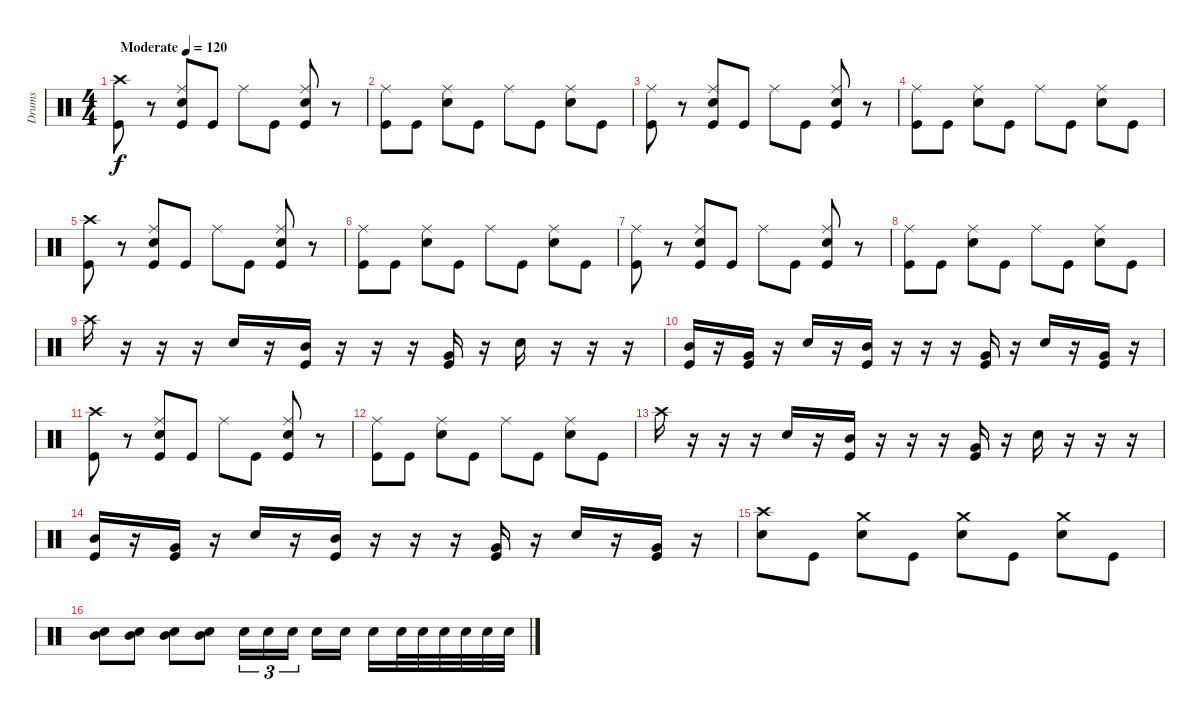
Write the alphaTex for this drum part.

\track ("Drums" "Drums") {instrument percussion}
\staff {score}
\articulation defaults
\ts (4 4)
\tempo (120 "Moderate")
\clef neutral
\ks c
("Crash high (hit)" "Kick (hit)").8{dy f} r.8 ("Ride (middle)" "Electric Snare (hit)" "Kick (hit)").8 "Kick (hit)".8 "Ride (middle)".8 "Kick (hit)".8 ("Ride (middle)" "Electric Snare (hit)" "Kick (hit)").8 r.8 |
("Ride (middle)" "Kick (hit)").8 "Kick (hit)".8 ("Ride (middle)" "Electric Snare (hit)").8 "Kick (hit)".8 "Ride (middle)".8 "Kick (hit)".8 ("Ride (middle)" "Electric Snare (hit)").8 "Kick (hit)".8 |
("Ride (middle)" "Kick (hit)").8 r.8 ("Ride (middle)" "Electric Snare (hit)" "Kick (hit)").8 "Kick (hit)".8 "Ride (middle)".8 "Kick (hit)".8 ("Ride (middle)" "Electric Snare (hit)" "Kick (hit)").8 r.8 |
("Ride (middle)" "Kick (hit)").8 "Kick (hit)".8 ("Ride (middle)" "Electric Snare (hit)").8 "Kick (hit)".8 "Ride (middle)".8 "Kick (hit)".8 ("Ride (middle)" "Electric Snare (hit)").8 "Kick (hit)".8 |
("Crash high (hit)" "Kick (hit)").8 r.8 ("Ride (middle)" "Electric Snare (hit)" "Kick (hit)").8 "Kick (hit)".8 "Ride (middle)".8 "Kick (hit)".8 ("Ride (middle)" "Electric Snare (hit)" "Kick (hit)").8 r.8 |
("Ride (middle)" "Kick (hit)").8 "Kick (hit)".8 ("Ride (middle)" "Electric Snare (hit)").8 "Kick (hit)".8 "Ride (middle)".8 "Kick (hit)".8 ("Ride (middle)" "Electric Snare (hit)").8 "Kick (hit)".8 |
("Ride (middle)" "Kick (hit)").8 r.8 ("Ride (middle)" "Electric Snare (hit)" "Kick (hit)").8 "Kick (hit)".8 "Ride (middle)".8 "Kick (hit)".8 ("Ride (middle)" "Electric Snare (hit)" "Kick (hit)").8 r.8 |
("Ride (middle)" "Kick (hit)").8 "Kick (hit)".8 ("Ride (middle)" "Electric Snare (hit)").8 "Kick (hit)".8 "Ride (middle)".8 "Kick (hit)".8 ("Ride (middle)" "Electric Snare (hit)").8 "Kick (hit)".8 |
"Crash high (hit)".16 r.16 r.16 r.16 "Electric Snare (hit)".16 r.16 ("Mid Tom (hit)" "Kick (hit)").16 r.16 r.16 r.16 ("Very Low Tom (hit)" "Kick (hit)").16 r.16 "Electric Snare (hit)".16 r.16 r.16 r.16 |
("Mid Tom (hit)" "Kick (hit)").16 r.16 ("Very Low Tom (hit)" "Kick (hit)").16 r.16 "Electric Snare (hit)".16 r.16 ("Mid Tom (hit)" "Kick (hit)").16 r.16 r.16 r.16 ("Very Low Tom (hit)" "Kick (hit)").16 r.16 "Electric Snare (hit)".16 r.16 ("Very Low Tom (hit)" "Kick (hit)").16 r.16 |
("Crash high (hit)" "Kick (hit)").8 r.8 ("Ride (middle)" "Electric Snare (hit)" "Kick (hit)").8 "Kick (hit)".8 "Ride (middle)".8 "Kick (hit)".8 ("Ride (middle)" "Electric Snare (hit)" "Kick (hit)").8 r.8 |
("Ride (middle)" "Kick (hit)").8 "Kick (hit)".8 ("Ride (middle)" "Electric Snare (hit)").8 "Kick (hit)".8 "Ride (middle)".8 "Kick (hit)".8 ("Ride (middle)" "Electric Snare (hit)").8 "Kick (hit)".8 |
"Crash high (hit)".16 r.16 r.16 r.16 "Electric Snare (hit)".16 r.16 ("Mid Tom (hit)" "Kick (hit)").16 r.16 r.16 r.16 ("Very Low Tom (hit)" "Kick (hit)").16 r.16 "Electric Snare (hit)".16 r.16 r.16 r.16 |
("Mid Tom (hit)" "Kick (hit)").16 r.16 ("Very Low Tom (hit)" "Kick (hit)").16 r.16 "Electric Snare (hit)".16 r.16 ("Mid Tom (hit)" "Kick (hit)").16 r.16 r.16 r.16 ("Very Low Tom (hit)" "Kick (hit)").16 r.16 "Electric Snare (hit)".16 r.16 ("Very Low Tom (hit)" "Kick (hit)").16 r.16 |
("Crash high (hit)" "Electric Snare (hit)").8 "Kick (hit)".8 ("Crash medium (hit)" "Electric Snare (hit)").8 "Kick (hit)".8 ("Crash medium (hit)" "Electric Snare (hit)").8 "Kick (hit)".8 ("Crash medium (hit)" "Electric Snare (hit)").8 "Kick (hit)".8 |
("Mid Tom (hit)" "Electric Snare (hit)").8 ("Mid Tom (hit)" "Electric Snare (hit)").8 ("Mid Tom (hit)" "Electric Snare (hit)").8 ("Mid Tom (hit)" "Electric Snare (hit)").8 "Electric Snare (hit)".16{tu (3 2)} "Electric Snare (hit)".16{tu (3 2)} "Electric Snare (hit)".16{tu (3 2) beam splitsecondary} "Electric Snare (hit)".16 "Electric Snare (hit)".16 "Electric Snare (hit)".16 "Electric Snare (hit)".32 "Electric Snare (hit)".32 "Electric Snare (hit)".32 "Electric Snare (hit)".32 "Electric Snare (hit)".32 "Electric Snare (hit)".32
